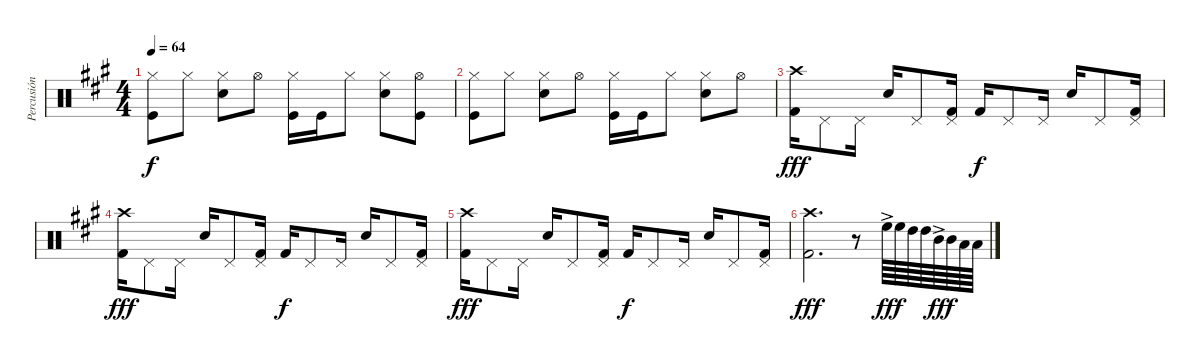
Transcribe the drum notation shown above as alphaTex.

\track ("Percusión" "Percusión") {instrument percussion}
\staff {score}
\articulation defaults
\ts (4 4)
\tempo 64
\clef neutral
\ks a
("Hi-Hat (closed)" "Kick (hit)").8{dy f} "Hi-Hat (closed)".8 ("Hi-Hat (closed)" "Snare (hit) 2").8 "Hi-Hat (open)".8 ("Kick (hit)" "Hi-Hat (closed)").16 "Kick (hit)".16 "Hi-Hat (closed)".8 ("Hi-Hat (closed)" "Snare (hit) 2").8 ("Kick (hit)" "Hi-Hat (open)").8 |
("Hi-Hat (closed)" "Kick (hit)").8 "Hi-Hat (closed)".8 ("Hi-Hat (closed)" "Snare (hit) 2").8 "Hi-Hat (open)".8 ("Kick (hit)" "Hi-Hat (closed)").16 "Kick (hit)".16 "Hi-Hat (closed)".8 ("Hi-Hat (closed)" "Snare (hit) 2").8 "Hi-Hat (open)".8 |
("Crash high (hit)" "Kick (hit) 2").16{dy fff} "Pedal Hi-Hat (hit)".8 "Pedal Hi-Hat (hit)".16 "Electric Snare (hit)".16 "Pedal Hi-Hat (hit)".8 ("Pedal Hi-Hat (hit)" "Kick (hit) 2").16 "Kick (hit) 2".16{dy f} "Pedal Hi-Hat (hit)".8 "Pedal Hi-Hat (hit)".16 "Electric Snare (hit)".16 "Pedal Hi-Hat (hit)".8 ("Pedal Hi-Hat (hit)" "Kick (hit) 2").16 |
("Crash high (hit)" "Kick (hit) 2").16{dy fff} "Pedal Hi-Hat (hit)".8 "Pedal Hi-Hat (hit)".16 "Electric Snare (hit)".16 "Pedal Hi-Hat (hit)".8 ("Pedal Hi-Hat (hit)" "Kick (hit) 2").16 "Kick (hit) 2".16{dy f} "Pedal Hi-Hat (hit)".8 "Pedal Hi-Hat (hit)".16 "Electric Snare (hit)".16 "Pedal Hi-Hat (hit)".8 ("Pedal Hi-Hat (hit)" "Kick (hit) 2").16 |
("Crash high (hit)" "Kick (hit) 2").16{dy fff} "Pedal Hi-Hat (hit)".8 "Pedal Hi-Hat (hit)".16 "Electric Snare (hit)".16 "Pedal Hi-Hat (hit)".8 ("Pedal Hi-Hat (hit)" "Kick (hit) 2").16 "Kick (hit) 2".16{dy f} "Pedal Hi-Hat (hit)".8 "Pedal Hi-Hat (hit)".16 "Electric Snare (hit)".16 "Pedal Hi-Hat (hit)".8 ("Pedal Hi-Hat (hit)" "Kick (hit) 2").16 |
("Crash high (hit)" "Kick (hit) 2").2{d dy fff} r.8 "High Floor Tom (hit)"{ac}.64{dy ff} "High Floor Tom (hit)".64{dy f} "High Tom (hit)".64 "High Tom (hit)".64 "Mid Tom (hit)"{ac}.64{dy ff} "Mid Tom (hit)".64{dy f} "Low Tom (hit)".64 "Low Tom (hit)".64
